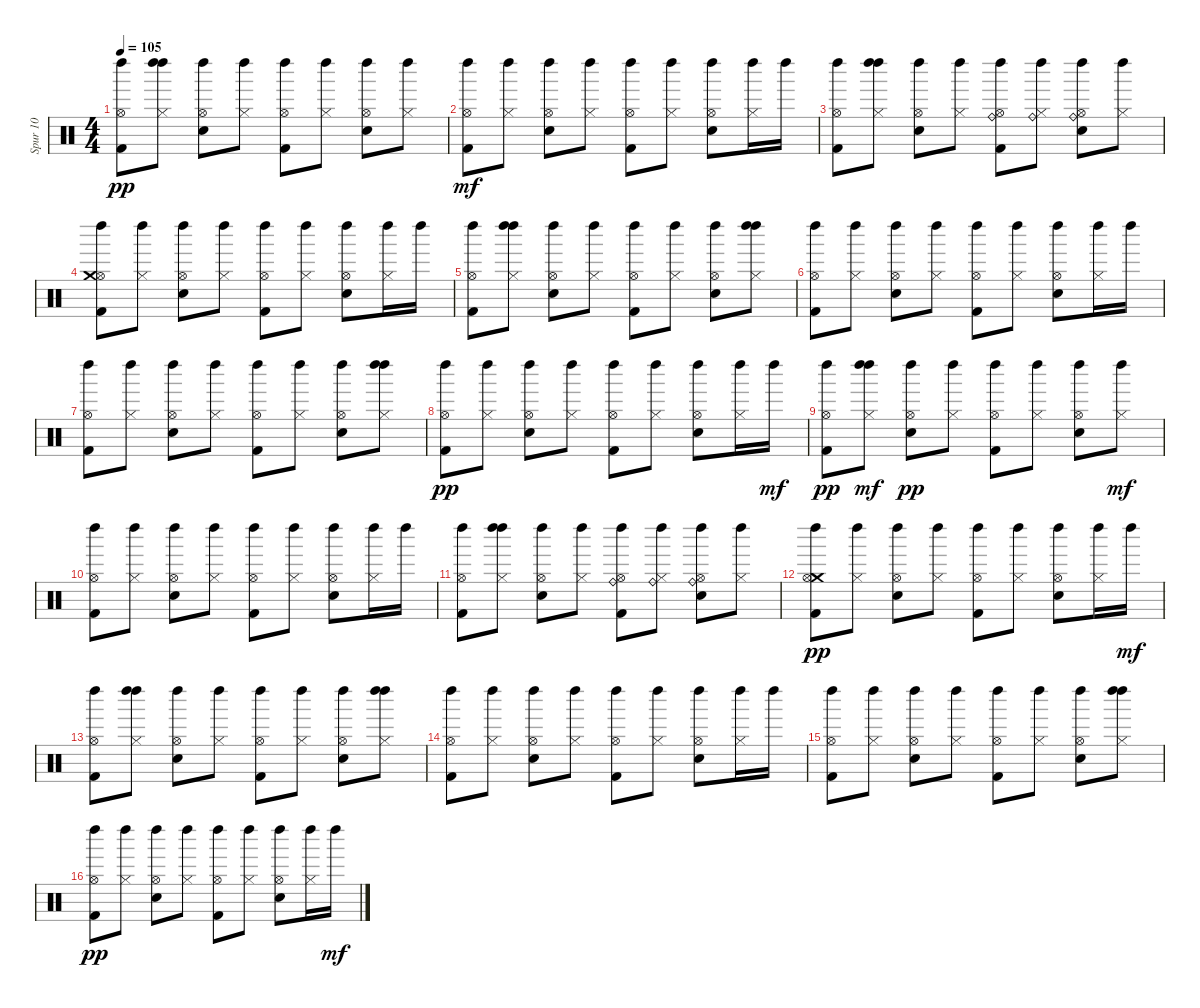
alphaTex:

\track ("Spur 10" "Spur 10") {instrument percussion}
\staff {score}
\articulation defaults
\ts (4 4)
\tempo 105
\clef neutral
\ks c
("Left Maraca (hit)" "Kick (hit) 2" "Hi-Hat (open)").8{dy pp} ("Left Maraca (hit)" "Left Maraca (hit)" "Hi-Hat (closed)").8 ("Left Maraca (hit)" "Snare (hit) 2" "Hi-Hat (open)").8 ("Left Maraca (hit)" "Hi-Hat (closed)").8 ("Left Maraca (hit)" "Kick (hit) 2" "Hi-Hat (open)").8 ("Left Maraca (hit)" "Hi-Hat (closed)").8 ("Left Maraca (hit)" "Snare (hit) 2" "Hi-Hat (open)").8 ("Left Maraca (hit)" "Hi-Hat (closed)").8 |
("Hi-Hat (open)" "Left Maraca (hit)" "Kick (hit) 2").8{dy mf} ("Hi-Hat (closed)" "Left Maraca (hit)").8 ("Hi-Hat (open)" "Left Maraca (hit)" "Snare (hit) 2").8 ("Hi-Hat (closed)" "Left Maraca (hit)").8 ("Hi-Hat (open)" "Left Maraca (hit)" "Kick (hit) 2").8 ("Hi-Hat (closed)" "Left Maraca (hit)").8 ("Hi-Hat (open)" "Left Maraca (hit)" "Snare (hit) 2").8 ("Hi-Hat (closed)" "Left Maraca (hit)").16 "Left Maraca (hit)".16 |
("Hi-Hat (open)" "Kick (hit) 2" "Left Maraca (hit)").8 ("Hi-Hat (closed)" "Left Maraca (hit)" "Left Maraca (hit)").8 ("Hi-Hat (open)" "Snare (hit) 2" "Left Maraca (hit)").8 ("Hi-Hat (closed)" "Left Maraca (hit)").8 ("Hi-Hat (open)" "Kick (hit) 2" "Left Maraca (hit)" "Ride (bell)").8 ("Hi-Hat (closed)" "Left Maraca (hit)" "Ride (bell)").8 ("Hi-Hat (open)" "Snare (hit) 2" "Left Maraca (hit)" "Ride (bell)").8 ("Hi-Hat (closed)" "Left Maraca (hit)").8 |
("Hi-Hat (open)" "Left Maraca (hit)" "Kick (hit) 2" "Crash medium (hit)").8 ("Hi-Hat (closed)" "Left Maraca (hit)").8 ("Hi-Hat (open)" "Left Maraca (hit)" "Snare (hit) 2").8 ("Hi-Hat (closed)" "Left Maraca (hit)").8 ("Hi-Hat (open)" "Left Maraca (hit)" "Kick (hit) 2").8 ("Hi-Hat (closed)" "Left Maraca (hit)").8 ("Hi-Hat (open)" "Left Maraca (hit)" "Snare (hit) 2").8 ("Hi-Hat (closed)" "Left Maraca (hit)").16 "Left Maraca (hit)".16 |
("Hi-Hat (open)" "Kick (hit) 2" "Left Maraca (hit)").8 ("Hi-Hat (closed)" "Left Maraca (hit)" "Left Maraca (hit)").8 ("Hi-Hat (open)" "Snare (hit) 2" "Left Maraca (hit)").8 ("Hi-Hat (closed)" "Left Maraca (hit)").8 ("Hi-Hat (open)" "Kick (hit) 2" "Left Maraca (hit)").8 ("Hi-Hat (closed)" "Left Maraca (hit)").8 ("Hi-Hat (open)" "Snare (hit) 2" "Left Maraca (hit)").8 ("Hi-Hat (closed)" "Left Maraca (hit)" "Left Maraca (hit)").8 |
("Hi-Hat (open)" "Kick (hit) 2" "Left Maraca (hit)").8 ("Hi-Hat (closed)" "Left Maraca (hit)").8 ("Hi-Hat (open)" "Snare (hit) 2" "Left Maraca (hit)").8 ("Hi-Hat (closed)" "Left Maraca (hit)").8 ("Hi-Hat (open)" "Kick (hit) 2" "Left Maraca (hit)").8 ("Hi-Hat (closed)" "Left Maraca (hit)").8 ("Hi-Hat (open)" "Snare (hit) 2" "Left Maraca (hit)").8 ("Hi-Hat (closed)" "Left Maraca (hit)").16 "Left Maraca (hit)".16 |
("Hi-Hat (open)" "Kick (hit) 2" "Left Maraca (hit)").8 ("Hi-Hat (closed)" "Left Maraca (hit)").8 ("Hi-Hat (open)" "Snare (hit) 2" "Left Maraca (hit)").8 ("Hi-Hat (closed)" "Left Maraca (hit)").8 ("Hi-Hat (open)" "Kick (hit) 2" "Left Maraca (hit)").8 ("Hi-Hat (closed)" "Left Maraca (hit)").8 ("Hi-Hat (open)" "Snare (hit) 2" "Left Maraca (hit)").8 ("Hi-Hat (closed)" "Left Maraca (hit)" "Left Maraca (hit)").8 |
("Left Maraca (hit)" "Hi-Hat (open)" "Kick (hit) 2").8{dy pp} ("Left Maraca (hit)" "Hi-Hat (closed)").8 ("Left Maraca (hit)" "Hi-Hat (open)" "Snare (hit) 2").8 ("Left Maraca (hit)" "Hi-Hat (closed)").8 ("Left Maraca (hit)" "Hi-Hat (open)" "Kick (hit) 2").8 ("Left Maraca (hit)" "Hi-Hat (closed)").8 ("Left Maraca (hit)" "Hi-Hat (open)" "Snare (hit) 2").8 ("Left Maraca (hit)" "Hi-Hat (closed)").16 "Left Maraca (hit)".16{dy mf} |
("Left Maraca (hit)" "Hi-Hat (open)" "Kick (hit) 2").8{dy pp} ("Left Maraca (hit)" "Hi-Hat (closed)" "Left Maraca (hit)").8{dy mf} ("Left Maraca (hit)" "Hi-Hat (open)" "Snare (hit) 2").8{dy pp} ("Left Maraca (hit)" "Hi-Hat (closed)").8 ("Left Maraca (hit)" "Hi-Hat (open)" "Kick (hit) 2").8 ("Left Maraca (hit)" "Hi-Hat (closed)").8 ("Left Maraca (hit)" "Hi-Hat (open)" "Snare (hit) 2").8 ("Hi-Hat (closed)" "Left Maraca (hit)").8{dy mf} |
("Hi-Hat (open)" "Left Maraca (hit)" "Kick (hit) 2").8 ("Hi-Hat (closed)" "Left Maraca (hit)").8 ("Hi-Hat (open)" "Left Maraca (hit)" "Snare (hit) 2").8 ("Hi-Hat (closed)" "Left Maraca (hit)").8 ("Hi-Hat (open)" "Left Maraca (hit)" "Kick (hit) 2").8 ("Hi-Hat (closed)" "Left Maraca (hit)").8 ("Hi-Hat (open)" "Left Maraca (hit)" "Snare (hit) 2").8 ("Hi-Hat (closed)" "Left Maraca (hit)").16 "Left Maraca (hit)".16 |
("Hi-Hat (open)" "Kick (hit) 2" "Left Maraca (hit)").8 ("Hi-Hat (closed)" "Left Maraca (hit)" "Left Maraca (hit)").8 ("Hi-Hat (open)" "Snare (hit) 2" "Left Maraca (hit)").8 ("Hi-Hat (closed)" "Left Maraca (hit)").8 ("Hi-Hat (open)" "Kick (hit) 2" "Left Maraca (hit)" "Ride (bell)").8 ("Hi-Hat (closed)" "Left Maraca (hit)" "Ride (bell)").8 ("Hi-Hat (open)" "Snare (hit) 2" "Left Maraca (hit)" "Ride (bell)").8 ("Hi-Hat (closed)" "Left Maraca (hit)").8 |
("Left Maraca (hit)" "Crash medium (hit)" "Hi-Hat (open)" "Kick (hit) 2").8{dy pp} ("Left Maraca (hit)" "Hi-Hat (closed)").8 ("Left Maraca (hit)" "Hi-Hat (open)" "Snare (hit) 2").8 ("Left Maraca (hit)" "Hi-Hat (closed)").8 ("Left Maraca (hit)" "Hi-Hat (open)" "Kick (hit) 2").8 ("Left Maraca (hit)" "Hi-Hat (closed)").8 ("Left Maraca (hit)" "Hi-Hat (open)" "Snare (hit) 2").8 ("Left Maraca (hit)" "Hi-Hat (closed)").16 "Left Maraca (hit)".16{dy mf} |
("Hi-Hat (open)" "Kick (hit) 2" "Left Maraca (hit)").8 ("Hi-Hat (closed)" "Left Maraca (hit)" "Left Maraca (hit)").8 ("Hi-Hat (open)" "Snare (hit) 2" "Left Maraca (hit)").8 ("Hi-Hat (closed)" "Left Maraca (hit)").8 ("Hi-Hat (open)" "Kick (hit) 2" "Left Maraca (hit)").8 ("Hi-Hat (closed)" "Left Maraca (hit)").8 ("Hi-Hat (open)" "Snare (hit) 2" "Left Maraca (hit)").8 ("Hi-Hat (closed)" "Left Maraca (hit)" "Left Maraca (hit)").8 |
("Hi-Hat (open)" "Kick (hit) 2" "Left Maraca (hit)").8 ("Hi-Hat (closed)" "Left Maraca (hit)").8 ("Hi-Hat (open)" "Snare (hit) 2" "Left Maraca (hit)").8 ("Hi-Hat (closed)" "Left Maraca (hit)").8 ("Hi-Hat (open)" "Kick (hit) 2" "Left Maraca (hit)").8 ("Hi-Hat (closed)" "Left Maraca (hit)").8 ("Hi-Hat (open)" "Snare (hit) 2" "Left Maraca (hit)").8 ("Hi-Hat (closed)" "Left Maraca (hit)").16 "Left Maraca (hit)".16 |
("Hi-Hat (open)" "Kick (hit) 2" "Left Maraca (hit)").8 ("Hi-Hat (closed)" "Left Maraca (hit)").8 ("Hi-Hat (open)" "Snare (hit) 2" "Left Maraca (hit)").8 ("Hi-Hat (closed)" "Left Maraca (hit)").8 ("Hi-Hat (open)" "Kick (hit) 2" "Left Maraca (hit)").8 ("Hi-Hat (closed)" "Left Maraca (hit)").8 ("Hi-Hat (open)" "Snare (hit) 2" "Left Maraca (hit)").8 ("Hi-Hat (closed)" "Left Maraca (hit)" "Left Maraca (hit)").8 |
("Left Maraca (hit)" "Kick (hit) 2" "Hi-Hat (open)").8{dy pp} ("Left Maraca (hit)" "Hi-Hat (closed)").8 ("Left Maraca (hit)" "Snare (hit) 2" "Hi-Hat (open)").8 ("Left Maraca (hit)" "Hi-Hat (closed)").8 ("Left Maraca (hit)" "Kick (hit) 2" "Hi-Hat (open)").8 ("Left Maraca (hit)" "Hi-Hat (closed)").8 ("Left Maraca (hit)" "Snare (hit) 2" "Hi-Hat (open)").8 ("Left Maraca (hit)" "Hi-Hat (closed)").16 "Left Maraca (hit)".16{dy mf}
